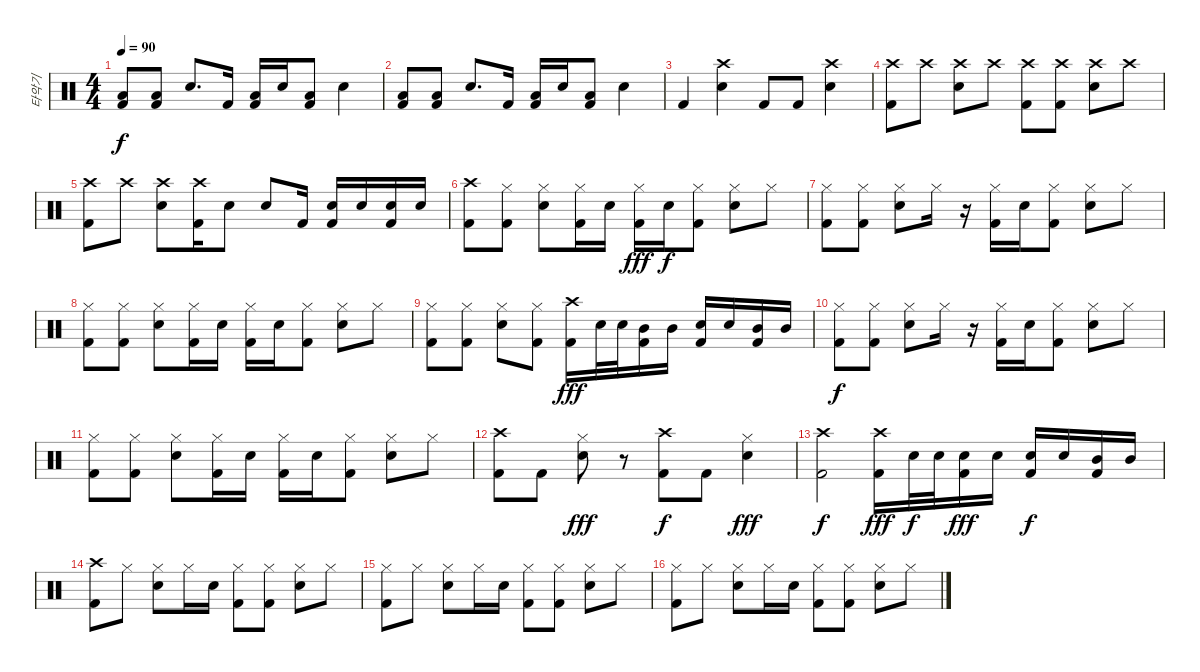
\track ("타악기" "타악기") {instrument percussion}
\staff {score}
\articulation defaults
\ts (4 4)
\tempo 90
\clef neutral
\ks c
("Kick (hit) 2" "Low Floor Tom (hit)").8{dy f} ("Kick (hit) 2" "Low Floor Tom (hit)").8 "Electric Snare (hit)".8{d} "Kick (hit) 2".16 ("Kick (hit) 2" "Low Floor Tom (hit)").16 "Electric Snare (hit)".16 ("Kick (hit) 2" "Low Floor Tom (hit)").8 "Electric Snare (hit)".4 |
("Kick (hit) 2" "Low Floor Tom (hit)").8 ("Kick (hit) 2" "Low Floor Tom (hit)").8 "Electric Snare (hit)".8{d} "Kick (hit) 2".16 ("Kick (hit) 2" "Low Floor Tom (hit)").16 "Electric Snare (hit)".16 ("Kick (hit) 2" "Low Floor Tom (hit)").8 "Electric Snare (hit)".4 |
"Kick (hit) 2".4 ("Crash high (hit)" "Electric Snare (hit)").4 "Kick (hit) 2".8 "Kick (hit) 2".8 ("Crash high (hit)" "Electric Snare (hit)").4 |
("Crash high (hit)" "Kick (hit) 2").8 "Crash high (hit)".8 ("Crash high (hit)" "Electric Snare (hit)").8 "Crash high (hit)".8 ("Crash high (hit)" "Kick (hit) 2").8 ("Crash high (hit)" "Kick (hit) 2").8 ("Crash high (hit)" "Electric Snare (hit)").8 "Crash high (hit)".8 |
("Crash high (hit)" "Kick (hit) 2").8 "Crash high (hit)".8 ("Crash high (hit)" "Electric Snare (hit)").8 ("Crash high (hit)" "Kick (hit) 2").16 "Electric Snare (hit)".8 "Electric Snare (hit)".8 "Kick (hit) 2".16 ("Electric Snare (hit)" "Kick (hit) 2").16 "Electric Snare (hit)".16 ("Electric Snare (hit)" "Kick (hit) 2").16 "Electric Snare (hit)".16 |
("Crash high (hit)" "Kick (hit) 2").8 ("Hi-Hat (closed)" "Kick (hit) 2").8 ("Hi-Hat (closed)" "Electric Snare (hit)").8 ("Hi-Hat (closed)" "Kick (hit) 2").16 "Electric Snare (hit)".16 ("Hi-Hat (closed)" "Kick (hit) 2").16{dy fff} "Electric Snare (hit)".16{dy f} ("Hi-Hat (closed)" "Kick (hit) 2").8 ("Hi-Hat (closed)" "Electric Snare (hit)").8 "Hi-Hat (closed)".8 |
("Hi-Hat (closed)" "Kick (hit) 2").8 ("Hi-Hat (closed)" "Kick (hit) 2").8 ("Hi-Hat (closed)" "Electric Snare (hit)").8 "Hi-Hat (closed)".16 r.16 ("Hi-Hat (closed)" "Kick (hit) 2").16 "Electric Snare (hit)".16 ("Hi-Hat (closed)" "Kick (hit) 2").8 ("Hi-Hat (closed)" "Electric Snare (hit)").8 "Hi-Hat (closed)".8 |
("Hi-Hat (closed)" "Kick (hit) 2").8 ("Hi-Hat (closed)" "Kick (hit) 2").8 ("Hi-Hat (closed)" "Electric Snare (hit)").8 ("Hi-Hat (closed)" "Kick (hit) 2").16 "Electric Snare (hit)".16 ("Hi-Hat (closed)" "Kick (hit) 2").16 "Electric Snare (hit)".16 ("Hi-Hat (closed)" "Kick (hit) 2").8 ("Hi-Hat (closed)" "Electric Snare (hit)").8 "Hi-Hat (closed)".8 |
("Kick (hit) 2" "Hi-Hat (closed)").8 ("Hi-Hat (closed)" "Kick (hit) 2").8 ("Hi-Hat (closed)" "Electric Snare (hit)").8 ("Hi-Hat (closed)" "Kick (hit) 2").8 ("Crash high (hit)" "Kick (hit) 2").16{dy fff} "Electric Snare (hit)".32 "Electric Snare (hit)".32 ("Mid Tom (hit)" "Kick (hit) 2").16 "Mid Tom (hit)".16 ("Electric Snare (hit)" "Kick (hit) 2").16 "Electric Snare (hit)".16 ("Mid Tom (hit)" "Kick (hit) 2").16 "Mid Tom (hit)".16 |
("Hi-Hat (closed)" "Kick (hit) 2").8{dy f} ("Hi-Hat (closed)" "Kick (hit) 2").8 ("Hi-Hat (closed)" "Electric Snare (hit)").8 "Hi-Hat (closed)".16 r.16 ("Hi-Hat (closed)" "Kick (hit) 2").16 "Electric Snare (hit)".16 ("Hi-Hat (closed)" "Kick (hit) 2").8 ("Hi-Hat (closed)" "Electric Snare (hit)").8 "Hi-Hat (closed)".8 |
("Hi-Hat (closed)" "Kick (hit) 2").8 ("Hi-Hat (closed)" "Kick (hit) 2").8 ("Hi-Hat (closed)" "Electric Snare (hit)").8 ("Hi-Hat (closed)" "Kick (hit) 2").16 "Electric Snare (hit)".16 ("Hi-Hat (closed)" "Kick (hit) 2").16 "Electric Snare (hit)".16 ("Hi-Hat (closed)" "Kick (hit) 2").8 ("Hi-Hat (closed)" "Electric Snare (hit)").8 "Hi-Hat (closed)".8 |
("Crash high (hit)" "Kick (hit) 2").8 "Kick (hit) 2".8 ("Hi-Hat (closed)" "Electric Snare (hit)").8{dy fff} r.8 ("Crash high (hit)" "Kick (hit) 2").8{dy f} "Kick (hit) 2".8 ("Hi-Hat (closed)" "Electric Snare (hit)").4{dy fff} |
("Crash high (hit)" "Kick (hit) 2").2{dy f} ("Crash high (hit)" "Kick (hit) 2").16{dy fff} "Electric Snare (hit)".32{dy f} "Electric Snare (hit)".32 ("Electric Snare (hit)" "Kick (hit) 2").16{dy fff} "Electric Snare (hit)".16 ("Electric Snare (hit)" "Kick (hit) 2").16{dy f} "Electric Snare (hit)".16 ("Mid Tom (hit)" "Kick (hit) 2").16 "Mid Tom (hit)".16 |
("Crash high (hit)" "Kick (hit) 2").8 "Hi-Hat (closed)".8 ("Hi-Hat (closed)" "Electric Snare (hit)").8 "Hi-Hat (closed)".16 "Electric Snare (hit)".16 ("Hi-Hat (closed)" "Kick (hit) 2").8 ("Hi-Hat (closed)" "Kick (hit) 2").8 ("Hi-Hat (closed)" "Electric Snare (hit)").8 "Hi-Hat (closed)".8 |
("Kick (hit) 2" "Hi-Hat (closed)").8 "Hi-Hat (closed)".8 ("Hi-Hat (closed)" "Electric Snare (hit)").8 "Hi-Hat (closed)".16 "Electric Snare (hit)".16 ("Hi-Hat (closed)" "Kick (hit) 2").8 ("Hi-Hat (closed)" "Kick (hit) 2").8 ("Hi-Hat (closed)" "Electric Snare (hit)").8 "Hi-Hat (closed)".8 |
("Hi-Hat (closed)" "Kick (hit) 2").8 "Hi-Hat (closed)".8 ("Hi-Hat (closed)" "Electric Snare (hit)").8 "Hi-Hat (closed)".16 "Electric Snare (hit)".16 ("Hi-Hat (closed)" "Kick (hit) 2").8 ("Hi-Hat (closed)" "Kick (hit) 2").8 ("Hi-Hat (closed)" "Electric Snare (hit)").8 "Hi-Hat (closed)".8
